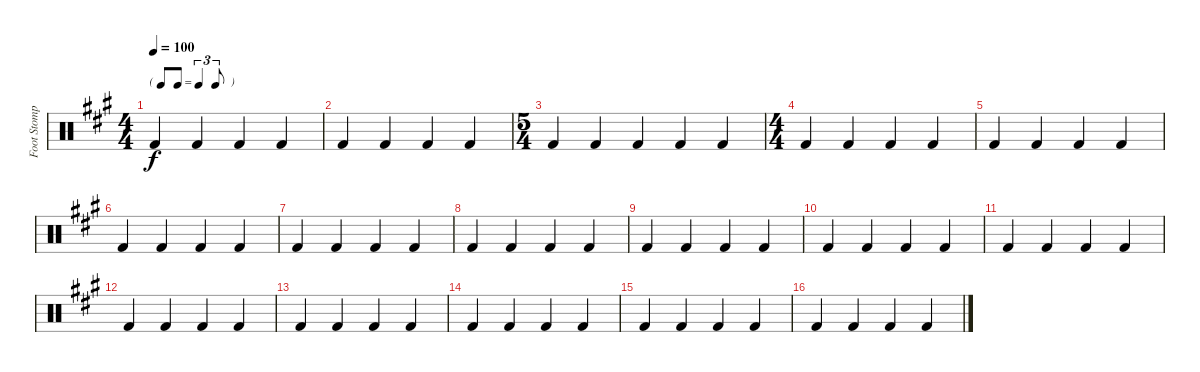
\track ("Foot Stomp" "Foot Stomp") {instrument percussion}
\staff {score}
\articulation defaults
\ts (4 4)
\tf triplet8th
\tempo 100
\clef neutral
\ks a "Kick (hit) 2".4{dy f} "Kick (hit) 2".4 "Kick (hit) 2".4 "Kick (hit) 2".4
|
"Kick (hit) 2".4 "Kick (hit) 2".4 "Kick (hit) 2".4 "Kick (hit) 2".4 |
\ts (5 4)
"Kick (hit) 2".4 "Kick (hit) 2".4 "Kick (hit) 2".4 "Kick (hit) 2".4 "Kick (hit) 2".4 |
\ts (4 4)
"Kick (hit) 2".4 "Kick (hit) 2".4 "Kick (hit) 2".4 "Kick (hit) 2".4 |
"Kick (hit) 2".4 "Kick (hit) 2".4 "Kick (hit) 2".4 "Kick (hit) 2".4 |
"Kick (hit) 2".4 "Kick (hit) 2".4 "Kick (hit) 2".4 "Kick (hit) 2".4 |
"Kick (hit) 2".4 "Kick (hit) 2".4 "Kick (hit) 2".4 "Kick (hit) 2".4 |
"Kick (hit) 2".4 "Kick (hit) 2".4 "Kick (hit) 2".4 "Kick (hit) 2".4 |
"Kick (hit) 2".4 "Kick (hit) 2".4 "Kick (hit) 2".4 "Kick (hit) 2".4 |
"Kick (hit) 2".4 "Kick (hit) 2".4 "Kick (hit) 2".4 "Kick (hit) 2".4 |
"Kick (hit) 2".4 "Kick (hit) 2".4 "Kick (hit) 2".4 "Kick (hit) 2".4 |
"Kick (hit) 2".4 "Kick (hit) 2".4 "Kick (hit) 2".4 "Kick (hit) 2".4 |
"Kick (hit) 2".4 "Kick (hit) 2".4 "Kick (hit) 2".4 "Kick (hit) 2".4 |
"Kick (hit) 2".4 "Kick (hit) 2".4 "Kick (hit) 2".4 "Kick (hit) 2".4 |
"Kick (hit) 2".4 "Kick (hit) 2".4 "Kick (hit) 2".4 "Kick (hit) 2".4 |
"Kick (hit) 2".4 "Kick (hit) 2".4 "Kick (hit) 2".4 "Kick (hit) 2".4
